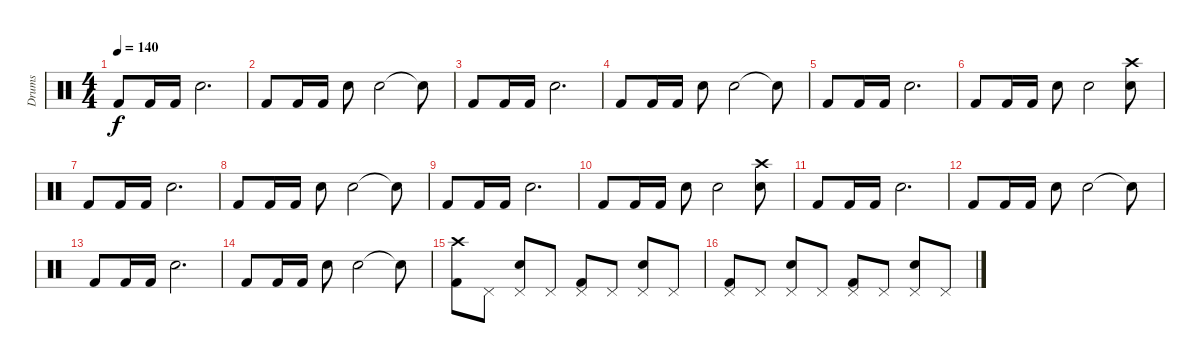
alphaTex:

\track ("Drums" "Drums") {instrument percussion}
\staff {score}
\articulation defaults
\ts (4 4)
\tempo 140
\clef neutral
\ks c "Kick (hit) 2".8{dy f} "Kick (hit) 2".16 "Kick (hit) 2".16 "Snare (hit) 2".2{d}
|
"Kick (hit) 2".8 "Kick (hit) 2".16 "Kick (hit) 2".16 "Electric Snare (hit)".8 "Snare (hit) 2".2 "Snare (hit)"{t}.8 |
"Kick (hit) 2".8 "Kick (hit) 2".16 "Kick (hit) 2".16 "Snare (hit) 2".2{d} |
"Kick (hit) 2".8 "Kick (hit) 2".16 "Kick (hit) 2".16 "Electric Snare (hit)".8 "Snare (hit) 2".2 "Snare (hit)"{t}.8 |
"Kick (hit) 2".8 "Kick (hit) 2".16 "Kick (hit) 2".16 "Snare (hit) 2".2{d} |
"Kick (hit) 2".8 "Kick (hit) 2".16 "Kick (hit) 2".16 "Electric Snare (hit)".8 "Snare (hit) 2".2 ("Crash high (hit)" "Snare (hit)").8 |
"Kick (hit) 2".8 "Kick (hit) 2".16 "Kick (hit) 2".16 "Snare (hit) 2".2{d} |
"Kick (hit) 2".8 "Kick (hit) 2".16 "Kick (hit) 2".16 "Electric Snare (hit)".8 "Snare (hit) 2".2 "Snare (hit)"{t}.8 |
"Kick (hit) 2".8 "Kick (hit) 2".16 "Kick (hit) 2".16 "Snare (hit) 2".2{d} |
"Kick (hit) 2".8 "Kick (hit) 2".16 "Kick (hit) 2".16 "Electric Snare (hit)".8 "Snare (hit) 2".2 ("Crash high (hit)" "Snare (hit)").8 |
"Kick (hit) 2".8 "Kick (hit) 2".16 "Kick (hit) 2".16 "Snare (hit) 2".2{d} |
"Kick (hit) 2".8 "Kick (hit) 2".16 "Kick (hit) 2".16 "Electric Snare (hit)".8 "Snare (hit) 2".2 "Snare (hit)"{t}.8 |
"Kick (hit) 2".8 "Kick (hit) 2".16 "Kick (hit) 2".16 "Snare (hit) 2".2{d} |
"Kick (hit) 2".8 "Kick (hit) 2".16 "Kick (hit) 2".16 "Electric Snare (hit)".8 "Snare (hit) 2".2 "Snare (hit)"{t}.8 |
("Crash high (hit)" "Kick (hit) 2").8 "Pedal Hi-Hat (hit)".8 ("Pedal Hi-Hat (hit)" "Snare (hit) 2").8 "Pedal Hi-Hat (hit)".8 ("Pedal Hi-Hat (hit)" "Kick (hit) 2").8 "Pedal Hi-Hat (hit)".8 ("Pedal Hi-Hat (hit)" "Snare (hit) 2").8 "Pedal Hi-Hat (hit)".8 |
("Pedal Hi-Hat (hit)" "Kick (hit) 2").8 "Pedal Hi-Hat (hit)".8 ("Pedal Hi-Hat (hit)" "Snare (hit) 2").8 "Pedal Hi-Hat (hit)".8 ("Pedal Hi-Hat (hit)" "Kick (hit) 2").8 "Pedal Hi-Hat (hit)".8 ("Pedal Hi-Hat (hit)" "Snare (hit) 2").8 "Pedal Hi-Hat (hit)".8
